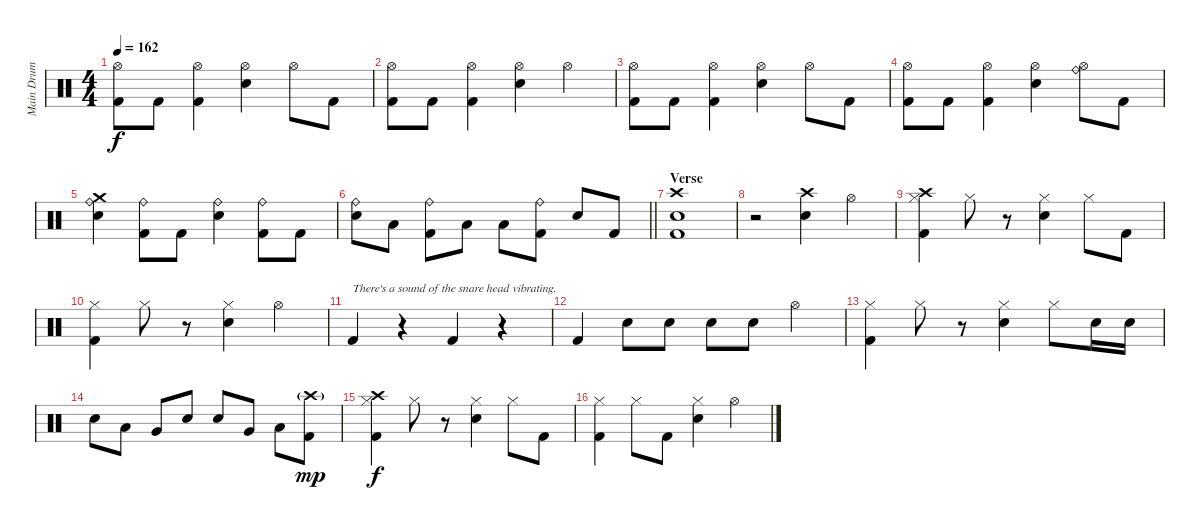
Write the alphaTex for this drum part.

\track ("Main Drum Track" "Main Drum ") {instrument percussion}
\staff {score}
\articulation defaults
\ts (4 4)
\tempo 162
\clef neutral
\ks c
("Hi-Hat (open)" "Kick (hit) 2").8{dy f} "Kick (hit) 2".8 ("Hi-Hat (open)" "Kick (hit) 2").4 ("Hi-Hat (open)" "Electric Snare (hit)").4 "Hi-Hat (open)".8 "Kick (hit) 2".8 |
("Hi-Hat (open)" "Kick (hit) 2").8 "Kick (hit) 2".8 ("Hi-Hat (open)" "Kick (hit) 2").4 ("Hi-Hat (open)" "Electric Snare (hit)").4 "Hi-Hat (open)".4 |
("Hi-Hat (open)" "Kick (hit) 2").8 "Kick (hit) 2".8 ("Hi-Hat (open)" "Kick (hit) 2").4 ("Hi-Hat (open)" "Electric Snare (hit)").4 "Hi-Hat (open)".8 "Kick (hit) 2".8 |
("Hi-Hat (open)" "Kick (hit) 2").8 "Kick (hit) 2".8 ("Hi-Hat (open)" "Kick (hit) 2").4 ("Hi-Hat (open)" "Electric Snare (hit)").4 ("Ride (bell)" "Hi-Hat (open)").8 "Kick (hit) 2".8 |
("Ride (bell)" "Crash medium (hit)" "Electric Snare (hit)").4 ("Ride (bell)" "Kick (hit) 2").8 "Kick (hit) 2".8 ("Ride (bell)" "Electric Snare (hit)").4 ("Ride (bell)" "Kick (hit) 2").8 "Kick (hit) 2".8 |
\barLineRight lightlight
("Ride (bell)" "Electric Snare (hit)").8 "Low Floor Tom (hit)".8 ("Ride (bell)" "Kick (hit) 2").8 "Low Tom (hit)".8 "Low Floor Tom (hit)".8 ("Ride (bell)" "Kick (hit) 2").8 "Electric Snare (hit)".8 "Kick (hit) 2".8 |
\section ("" "Verse")
("Crash high (hit)" "Electric Snare (hit)" "Kick (hit) 2").1 |
r.2 ("Crash high (hit)" "Electric Snare (hit)").4 "Hi-Hat (open)".4 |
("Crash high (hit)" "Hi-Hat (closed)" "Kick (hit) 2").4 "Hi-Hat (closed)".8 r.8 ("Hi-Hat (closed)" "Electric Snare (hit)").4 "Hi-Hat (closed)".8 "Kick (hit) 2".8 |
("Hi-Hat (closed)" "Kick (hit) 2").4 "Hi-Hat (closed)".8 r.8 ("Hi-Hat (closed)" "Electric Snare (hit)").4 "Hi-Hat (open)".4 |
"Kick (hit) 2".4{txt "There's a sound of the snare head vibrating."} r.4 "Kick (hit) 2".4 r.4 |
"Kick (hit) 2".4 "Electric Snare (hit)".8 "Electric Snare (hit)".8 "Electric Snare (hit)".8 "Electric Snare (hit)".8 "Hi-Hat (open)".4 |
("Hi-Hat (closed)" "Kick (hit) 2").4 "Hi-Hat (closed)".8 r.8 ("Hi-Hat (closed)" "Electric Snare (hit)").4 "Hi-Hat (closed)".8 "Electric Snare (hit)".16 "Electric Snare (hit)".16 |
"Electric Snare (hit)".8 "Low Tom (hit)".8 "Very Low Tom (hit)".8 "Electric Snare (hit)".8 "Electric Snare (hit)".8 "Very Low Tom (hit)".8 "Low Floor Tom (hit)".8 ("Crash high (hit)"{g} "Kick (hit) 2").8{dy mp} |
("Crash high (hit)" "Hi-Hat (closed)" "Kick (hit) 2").4{dy f} "Hi-Hat (closed)".8 r.8 ("Hi-Hat (closed)" "Electric Snare (hit)").4 "Hi-Hat (closed)".8 "Kick (hit) 2".8 |
("Hi-Hat (closed)" "Kick (hit) 2").4 "Hi-Hat (closed)".8 "Kick (hit) 2".8 ("Hi-Hat (closed)" "Electric Snare (hit)").4 "Hi-Hat (open)".4
